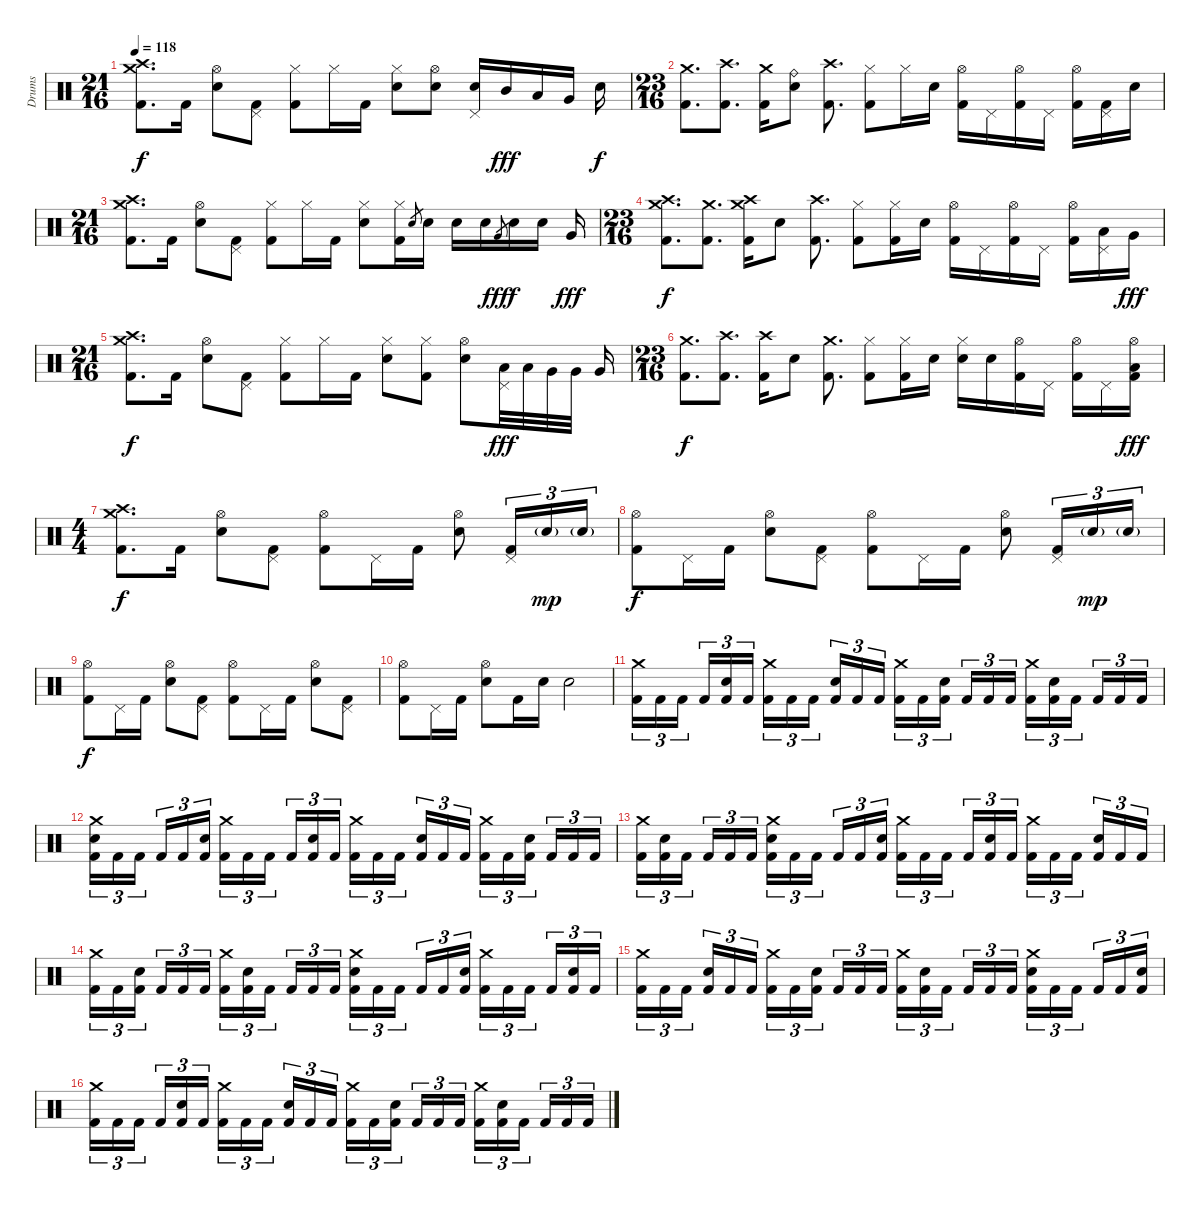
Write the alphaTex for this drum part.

\track ("Drums" "Drums") {instrument percussion}
\staff {score}
\articulation defaults
\ts (21 16)
\tempo 118
\clef neutral
\ks c
("Crash medium (hit)" "Crash high (hit)" "Kick (hit) 2").8{d dy f} "Kick (hit) 2".16 ("Hi-Hat (open)" "Electric Snare (hit)").8 ("Pedal Hi-Hat (hit)" "Kick (hit) 2").8 ("Hi-Hat (closed)" "Kick (hit) 2").8 "Hi-Hat (closed)".16 "Kick (hit) 2".16 ("Hi-Hat (closed)" "Electric Snare (hit)").8 ("Hi-Hat (open)" "Electric Snare (hit)").8 ("Pedal Hi-Hat (hit)" "Electric Snare (hit)").16 "Mid Tom (hit)".16{dy fff} "Low Tom (hit)".16 "Very Low Tom (hit)".16 "Electric Snare (hit)".16{dy f} |
\ts (23 16)
("Crash medium (hit)" "Kick (hit) 2").8{d} ("Crash high (hit)" "Kick (hit) 2").8{d} ("Crash medium (hit)" "Kick (hit) 2").16 ("Ride (bell)" "Electric Snare (hit)").8 ("Crash high (hit)" "Kick (hit) 2").8{d} ("Hi-Hat (closed)" "Kick (hit) 2").8 "Hi-Hat (closed)".16 "Electric Snare (hit)".16 ("Hi-Hat (open)" "Kick (hit) 2").16 "Pedal Hi-Hat (hit)".16 ("Hi-Hat (open)" "Kick (hit) 2").16 "Pedal Hi-Hat (hit)".16 ("Hi-Hat (open)" "Kick (hit) 2").16 ("Pedal Hi-Hat (hit)" "Kick (hit) 2").16 "Electric Snare (hit)".16 |
\ts (21 16)
("Crash medium (hit)" "Crash high (hit)" "Kick (hit) 2").8{d} "Kick (hit) 2".16 ("Hi-Hat (open)" "Electric Snare (hit)").8 ("Pedal Hi-Hat (hit)" "Kick (hit) 2").8 ("Hi-Hat (closed)" "Kick (hit) 2").8 "Hi-Hat (closed)".16 "Kick (hit) 2".16 ("Hi-Hat (closed)" "Electric Snare (hit)").8 ("Hi-Hat (closed)" "Kick (hit) 2").16 "Electric Snare (hit)".8{gr} "Electric Snare (hit)".16 "Electric Snare (hit)".16 "Electric Snare (hit)".16 "Very Low Tom (hit)".8{gr dy fff} "Electric Snare (hit)".16{dy f} "Electric Snare (hit)".16 "Very Low Tom (hit)".16{dy fff} |
\ts (23 16)
("Crash medium (hit)" "Crash high (hit)" "Kick (hit) 2").8{d dy f} ("Crash medium (hit)" "Kick (hit) 2").8{d} ("Crash medium (hit)" "Crash high (hit)" "Kick (hit) 2").16 "Electric Snare (hit)".8 ("Crash high (hit)" "Kick (hit) 2").8{d} ("Hi-Hat (closed)" "Kick (hit) 2").8 ("Hi-Hat (closed)" "Kick (hit) 2").16 "Electric Snare (hit)".16 ("Hi-Hat (open)" "Kick (hit) 2").16 "Pedal Hi-Hat (hit)".16 ("Hi-Hat (open)" "Kick (hit) 2").16 "Pedal Hi-Hat (hit)".16 ("Hi-Hat (open)" "Kick (hit) 2").16 ("Pedal Hi-Hat (hit)" "Low Tom (hit)").16 "Very Low Tom (hit)".16{dy fff} |
\ts (21 16)
("Crash medium (hit)" "Crash high (hit)" "Kick (hit) 2").8{d dy f} "Kick (hit) 2".16 ("Hi-Hat (open)" "Electric Snare (hit)").8 ("Pedal Hi-Hat (hit)" "Kick (hit) 2").8 ("Hi-Hat (closed)" "Kick (hit) 2").8 "Hi-Hat (closed)".16 "Kick (hit) 2".16 ("Hi-Hat (closed)" "Electric Snare (hit)").8 ("Hi-Hat (closed)" "Kick (hit) 2").8 ("Hi-Hat (open)" "Electric Snare (hit)").8 ("Pedal Hi-Hat (hit)" "Low Floor Tom (hit)").32{dy fff} "Low Floor Tom (hit)".32 "Very Low Tom (hit)".32 "Very Low Tom (hit)".32 "Very Low Tom (hit)".16 |
\ts (23 16)
("Crash medium (hit)" "Kick (hit) 2").8{d dy f} ("Crash high (hit)" "Kick (hit) 2").8{d} ("Crash high (hit)" "Kick (hit) 2").16 "Electric Snare (hit)".8 ("Crash medium (hit)" "Kick (hit) 2").8{d} ("Hi-Hat (closed)" "Kick (hit) 2").8 ("Hi-Hat (closed)" "Kick (hit) 2").16 "Electric Snare (hit)".16 ("Hi-Hat (closed)" "Electric Snare (hit)").16 "Electric Snare (hit)".16 ("Hi-Hat (open)" "Kick (hit) 2").16 "Pedal Hi-Hat (hit)".16 ("Hi-Hat (open)" "Kick (hit) 2").16 "Pedal Hi-Hat (hit)".16 ("Hi-Hat (open)" "Low Floor Tom (hit)" "Kick (hit) 2").16{dy fff} |
\ts (4 4)
("Crash medium (hit)" "Crash high (hit)" "Kick (hit) 2").8{d dy f} "Kick (hit) 2".16 ("Hi-Hat (open)" "Electric Snare (hit)").8 ("Pedal Hi-Hat (hit)" "Kick (hit) 2").8 ("Hi-Hat (open)" "Kick (hit) 2").8 "Pedal Hi-Hat (hit)".16 "Kick (hit) 2".16 ("Hi-Hat (open)" "Electric Snare (hit)").8 ("Pedal Hi-Hat (hit)" "Kick (hit) 2").16{tu (3 2)} "Electric Snare (hit)"{g}.16{tu (3 2) dy mp} "Electric Snare (hit)"{g}.16{tu (3 2)} |
("Hi-Hat (open)" "Kick (hit) 2").8{dy f} "Pedal Hi-Hat (hit)".16 "Kick (hit) 2".16 ("Hi-Hat (open)" "Electric Snare (hit)").8 ("Pedal Hi-Hat (hit)" "Kick (hit) 2").8 ("Hi-Hat (open)" "Kick (hit) 2").8 "Pedal Hi-Hat (hit)".16 "Kick (hit) 2".16 ("Hi-Hat (open)" "Electric Snare (hit)").8 ("Pedal Hi-Hat (hit)" "Kick (hit) 2").16{tu (3 2)} "Electric Snare (hit)"{g}.16{tu (3 2) dy mp} "Electric Snare (hit)"{g}.16{tu (3 2)} |
("Hi-Hat (open)" "Kick (hit) 2").8{dy f} "Pedal Hi-Hat (hit)".16 "Kick (hit) 2".16 ("Hi-Hat (open)" "Electric Snare (hit)").8 ("Pedal Hi-Hat (hit)" "Kick (hit) 2").8 ("Hi-Hat (open)" "Kick (hit) 2").8 "Pedal Hi-Hat (hit)".16 "Kick (hit) 2".16 ("Hi-Hat (open)" "Electric Snare (hit)").8 ("Pedal Hi-Hat (hit)" "Kick (hit) 2").8 |
("Hi-Hat (open)" "Kick (hit) 2").8 "Pedal Hi-Hat (hit)".16 "Kick (hit) 2".16 ("Hi-Hat (open)" "Electric Snare (hit)").8 "Kick (hit) 2".16 "Electric Snare (hit)".16 "Electric Snare (hit)".2 |
("Crash medium (hit)" "Kick (hit) 2").16{tu (3 2)} "Kick (hit) 2".16{tu (3 2)} "Kick (hit) 2".16{tu (3 2) beam splitsecondary} "Kick (hit) 2".16{tu (3 2)} ("Electric Snare (hit)" "Kick (hit) 2").16{tu (3 2)} "Kick (hit) 2".16{tu (3 2)} ("Crash medium (hit)" "Kick (hit) 2").16{tu (3 2)} "Kick (hit) 2".16{tu (3 2)} "Kick (hit) 2".16{tu (3 2) beam splitsecondary} ("Electric Snare (hit)" "Kick (hit) 2").16{tu (3 2)} "Kick (hit) 2".16{tu (3 2)} "Kick (hit) 2".16{tu (3 2)} ("Crash medium (hit)" "Kick (hit) 2").16{tu (3 2)} "Kick (hit) 2".16{tu (3 2)} ("Electric Snare (hit)" "Kick (hit) 2").16{tu (3 2) beam splitsecondary} "Kick (hit) 2".16{tu (3 2)} "Kick (hit) 2".16{tu (3 2)} "Kick (hit) 2".16{tu (3 2)} ("Crash medium (hit)" "Kick (hit) 2").16{tu (3 2)} ("Electric Snare (hit)" "Kick (hit) 2").16{tu (3 2)} "Kick (hit) 2".16{tu (3 2) beam splitsecondary} "Kick (hit) 2".16{tu (3 2)} "Kick (hit) 2".16{tu (3 2)} "Kick (hit) 2".16{tu (3 2)} |
("Crash medium (hit)" "Electric Snare (hit)" "Kick (hit) 2").16{tu (3 2)} "Kick (hit) 2".16{tu (3 2)} "Kick (hit) 2".16{tu (3 2) beam splitsecondary} "Kick (hit) 2".16{tu (3 2)} "Kick (hit) 2".16{tu (3 2)} ("Electric Snare (hit)" "Kick (hit) 2").16{tu (3 2)} ("Crash medium (hit)" "Kick (hit) 2").16{tu (3 2)} "Kick (hit) 2".16{tu (3 2)} "Kick (hit) 2".16{tu (3 2) beam splitsecondary} "Kick (hit) 2".16{tu (3 2)} ("Electric Snare (hit)" "Kick (hit) 2").16{tu (3 2)} "Kick (hit) 2".16{tu (3 2)} ("Crash medium (hit)" "Kick (hit) 2").16{tu (3 2)} "Kick (hit) 2".16{tu (3 2)} "Kick (hit) 2".16{tu (3 2) beam splitsecondary} ("Electric Snare (hit)" "Kick (hit) 2").16{tu (3 2)} "Kick (hit) 2".16{tu (3 2)} "Kick (hit) 2".16{tu (3 2)} ("Crash medium (hit)" "Kick (hit) 2").16{tu (3 2)} "Kick (hit) 2".16{tu (3 2)} ("Electric Snare (hit)" "Kick (hit) 2").16{tu (3 2) beam splitsecondary} "Kick (hit) 2".16{tu (3 2)} "Kick (hit) 2".16{tu (3 2)} "Kick (hit) 2".16{tu (3 2)} |
("Crash medium (hit)" "Kick (hit) 2").16{tu (3 2)} ("Electric Snare (hit)" "Kick (hit) 2").16{tu (3 2)} "Kick (hit) 2".16{tu (3 2) beam splitsecondary} "Kick (hit) 2".16{tu (3 2)} "Kick (hit) 2".16{tu (3 2)} "Kick (hit) 2".16{tu (3 2)} ("Crash medium (hit)" "Electric Snare (hit)" "Kick (hit) 2").16{tu (3 2)} "Kick (hit) 2".16{tu (3 2)} "Kick (hit) 2".16{tu (3 2) beam splitsecondary} "Kick (hit) 2".16{tu (3 2)} "Kick (hit) 2".16{tu (3 2)} ("Electric Snare (hit)" "Kick (hit) 2").16{tu (3 2)} ("Crash medium (hit)" "Kick (hit) 2").16{tu (3 2)} "Kick (hit) 2".16{tu (3 2)} "Kick (hit) 2".16{tu (3 2) beam splitsecondary} "Kick (hit) 2".16{tu (3 2)} ("Electric Snare (hit)" "Kick (hit) 2").16{tu (3 2)} "Kick (hit) 2".16{tu (3 2)} ("Crash medium (hit)" "Kick (hit) 2").16{tu (3 2)} "Kick (hit) 2".16{tu (3 2)} "Kick (hit) 2".16{tu (3 2) beam splitsecondary} ("Electric Snare (hit)" "Kick (hit) 2").16{tu (3 2)} "Kick (hit) 2".16{tu (3 2)} "Kick (hit) 2".16{tu (3 2)} |
("Crash medium (hit)" "Kick (hit) 2").16{tu (3 2)} "Kick (hit) 2".16{tu (3 2)} ("Electric Snare (hit)" "Kick (hit) 2").16{tu (3 2) beam splitsecondary} "Kick (hit) 2".16{tu (3 2)} "Kick (hit) 2".16{tu (3 2)} "Kick (hit) 2".16{tu (3 2)} ("Crash medium (hit)" "Kick (hit) 2").16{tu (3 2)} ("Electric Snare (hit)" "Kick (hit) 2").16{tu (3 2)} "Kick (hit) 2".16{tu (3 2) beam splitsecondary} "Kick (hit) 2".16{tu (3 2)} "Kick (hit) 2".16{tu (3 2)} "Kick (hit) 2".16{tu (3 2)} ("Crash medium (hit)" "Electric Snare (hit)" "Kick (hit) 2").16{tu (3 2)} "Kick (hit) 2".16{tu (3 2)} "Kick (hit) 2".16{tu (3 2) beam splitsecondary} "Kick (hit) 2".16{tu (3 2)} "Kick (hit) 2".16{tu (3 2)} ("Electric Snare (hit)" "Kick (hit) 2").16{tu (3 2)} ("Crash medium (hit)" "Kick (hit) 2").16{tu (3 2)} "Kick (hit) 2".16{tu (3 2)} "Kick (hit) 2".16{tu (3 2) beam splitsecondary} "Kick (hit) 2".16{tu (3 2)} ("Electric Snare (hit)" "Kick (hit) 2").16{tu (3 2)} "Kick (hit) 2".16{tu (3 2)} |
("Crash medium (hit)" "Kick (hit) 2").16{tu (3 2)} "Kick (hit) 2".16{tu (3 2)} "Kick (hit) 2".16{tu (3 2) beam splitsecondary} ("Electric Snare (hit)" "Kick (hit) 2").16{tu (3 2)} "Kick (hit) 2".16{tu (3 2)} "Kick (hit) 2".16{tu (3 2)} ("Crash medium (hit)" "Kick (hit) 2").16{tu (3 2)} "Kick (hit) 2".16{tu (3 2)} ("Electric Snare (hit)" "Kick (hit) 2").16{tu (3 2) beam splitsecondary} "Kick (hit) 2".16{tu (3 2)} "Kick (hit) 2".16{tu (3 2)} "Kick (hit) 2".16{tu (3 2)} ("Crash medium (hit)" "Kick (hit) 2").16{tu (3 2)} ("Electric Snare (hit)" "Kick (hit) 2").16{tu (3 2)} "Kick (hit) 2".16{tu (3 2) beam splitsecondary} "Kick (hit) 2".16{tu (3 2)} "Kick (hit) 2".16{tu (3 2)} "Kick (hit) 2".16{tu (3 2)} ("Crash medium (hit)" "Electric Snare (hit)" "Kick (hit) 2").16{tu (3 2)} "Kick (hit) 2".16{tu (3 2)} "Kick (hit) 2".16{tu (3 2) beam splitsecondary} "Kick (hit) 2".16{tu (3 2)} "Kick (hit) 2".16{tu (3 2)} ("Electric Snare (hit)" "Kick (hit) 2").16{tu (3 2)} |
("Crash medium (hit)" "Kick (hit) 2").16{tu (3 2)} "Kick (hit) 2".16{tu (3 2)} "Kick (hit) 2".16{tu (3 2) beam splitsecondary} "Kick (hit) 2".16{tu (3 2)} ("Electric Snare (hit)" "Kick (hit) 2").16{tu (3 2)} "Kick (hit) 2".16{tu (3 2)} ("Crash medium (hit)" "Kick (hit) 2").16{tu (3 2)} "Kick (hit) 2".16{tu (3 2)} "Kick (hit) 2".16{tu (3 2) beam splitsecondary} ("Electric Snare (hit)" "Kick (hit) 2").16{tu (3 2)} "Kick (hit) 2".16{tu (3 2)} "Kick (hit) 2".16{tu (3 2)} ("Crash medium (hit)" "Kick (hit) 2").16{tu (3 2)} "Kick (hit) 2".16{tu (3 2)} ("Electric Snare (hit)" "Kick (hit) 2").16{tu (3 2) beam splitsecondary} "Kick (hit) 2".16{tu (3 2)} "Kick (hit) 2".16{tu (3 2)} "Kick (hit) 2".16{tu (3 2)} ("Crash medium (hit)" "Kick (hit) 2").16{tu (3 2)} ("Electric Snare (hit)" "Kick (hit) 2").16{tu (3 2)} "Kick (hit) 2".16{tu (3 2) beam splitsecondary} "Kick (hit) 2".16{tu (3 2)} "Kick (hit) 2".16{tu (3 2)} "Kick (hit) 2".16{tu (3 2)}
